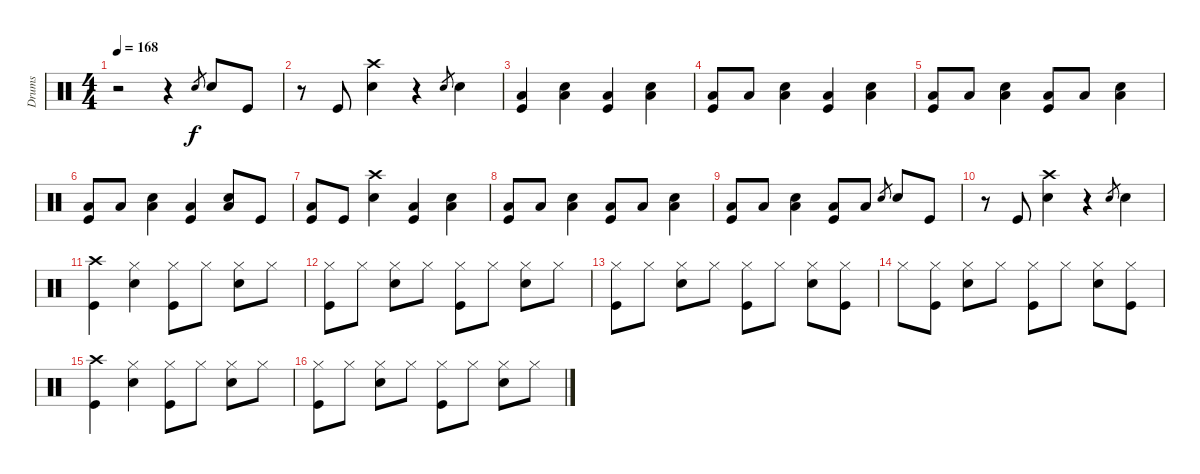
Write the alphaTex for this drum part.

\track ("Drums" "Drums") {instrument percussion}
\staff {score}
\articulation defaults
\ts (4 4)
\tempo 168
\clef neutral
\ks c
r.2{dy f} r.4 "Electric Snare (hit)".8{gr} "Electric Snare (hit)".8 "Kick (hit)".8 |
r.8 "Kick (hit)".8 ("Crash high (hit)" "Electric Snare (hit)").4 r.4 "Electric Snare (hit)".8{gr} "Electric Snare (hit)".4 |
("Low Floor Tom (hit)" "Kick (hit)").4 ("Electric Snare (hit)" "Low Floor Tom (hit)").4 ("Low Floor Tom (hit)" "Kick (hit)").4 ("Electric Snare (hit)" "Low Floor Tom (hit)").4 |
("Low Floor Tom (hit)" "Kick (hit)").8 "Low Floor Tom (hit)".8 ("Electric Snare (hit)" "Low Floor Tom (hit)").4 ("Low Floor Tom (hit)" "Kick (hit)").4 ("Electric Snare (hit)" "Low Floor Tom (hit)").4 |
("Low Floor Tom (hit)" "Kick (hit)").8 "Low Floor Tom (hit)".8 ("Electric Snare (hit)" "Low Floor Tom (hit)").4 ("Low Floor Tom (hit)" "Kick (hit)").8 "Low Floor Tom (hit)".8 ("Electric Snare (hit)" "Low Floor Tom (hit)").4 |
("Low Floor Tom (hit)" "Kick (hit)").8 "Low Floor Tom (hit)".8 ("Electric Snare (hit)" "Low Floor Tom (hit)").4 ("Low Floor Tom (hit)" "Kick (hit)").4 ("Electric Snare (hit)" "Low Floor Tom (hit)").8 "Kick (hit)".8 |
("Low Floor Tom (hit)" "Kick (hit)").8 "Kick (hit)".8 ("Crash high (hit)" "Electric Snare (hit)").4 ("Low Floor Tom (hit)" "Kick (hit)").4 ("Electric Snare (hit)" "Low Floor Tom (hit)").4 |
("Low Floor Tom (hit)" "Kick (hit)").8 "Low Floor Tom (hit)".8 ("Electric Snare (hit)" "Low Floor Tom (hit)").4 ("Low Floor Tom (hit)" "Kick (hit)").8 "Low Floor Tom (hit)".8 ("Electric Snare (hit)" "Low Floor Tom (hit)").4 |
("Low Floor Tom (hit)" "Kick (hit)").8 "Low Floor Tom (hit)".8 ("Electric Snare (hit)" "Low Floor Tom (hit)").4 ("Low Floor Tom (hit)" "Kick (hit)").8 "Low Floor Tom (hit)".8 "Electric Snare (hit)".8{gr} "Electric Snare (hit)".8 "Kick (hit)".8 |
r.8 "Kick (hit)".8 ("Crash high (hit)" "Electric Snare (hit)").4 r.4 "Electric Snare (hit)".8{gr} "Electric Snare (hit)".4 |
("Crash high (hit)" "Kick (hit)").4 ("Hi-Hat (closed)" "Electric Snare (hit)").4 ("Hi-Hat (closed)" "Kick (hit)").8 "Hi-Hat (closed)".8 ("Hi-Hat (closed)" "Electric Snare (hit)").8 "Hi-Hat (closed)".8 |
("Hi-Hat (closed)" "Kick (hit)").8 "Hi-Hat (closed)".8 ("Hi-Hat (closed)" "Electric Snare (hit)").8 "Hi-Hat (closed)".8 ("Hi-Hat (closed)" "Kick (hit)").8 "Hi-Hat (closed)".8 ("Hi-Hat (closed)" "Electric Snare (hit)").8 "Hi-Hat (closed)".8 |
("Hi-Hat (closed)" "Kick (hit)").8 "Hi-Hat (closed)".8 ("Hi-Hat (closed)" "Electric Snare (hit)").8 "Hi-Hat (closed)".8 ("Hi-Hat (closed)" "Kick (hit)").8 "Hi-Hat (closed)".8 ("Hi-Hat (closed)" "Electric Snare (hit)").8 ("Hi-Hat (closed)" "Kick (hit)").8 |
"Hi-Hat (closed)".8 ("Hi-Hat (closed)" "Kick (hit)").8 ("Hi-Hat (closed)" "Electric Snare (hit)").8 "Hi-Hat (closed)".8 ("Hi-Hat (closed)" "Kick (hit)").8 "Hi-Hat (closed)".8 ("Hi-Hat (closed)" "Electric Snare (hit)").8 ("Hi-Hat (closed)" "Kick (hit)").8 |
("Crash high (hit)" "Kick (hit)").4 ("Hi-Hat (closed)" "Electric Snare (hit)").4 ("Hi-Hat (closed)" "Kick (hit)").8 "Hi-Hat (closed)".8 ("Hi-Hat (closed)" "Electric Snare (hit)").8 "Hi-Hat (closed)".8 |
("Hi-Hat (closed)" "Kick (hit)").8 "Hi-Hat (closed)".8 ("Hi-Hat (closed)" "Electric Snare (hit)").8 "Hi-Hat (closed)".8 ("Hi-Hat (closed)" "Kick (hit)").8 "Hi-Hat (closed)".8 ("Hi-Hat (closed)" "Electric Snare (hit)").8 "Hi-Hat (closed)".8
